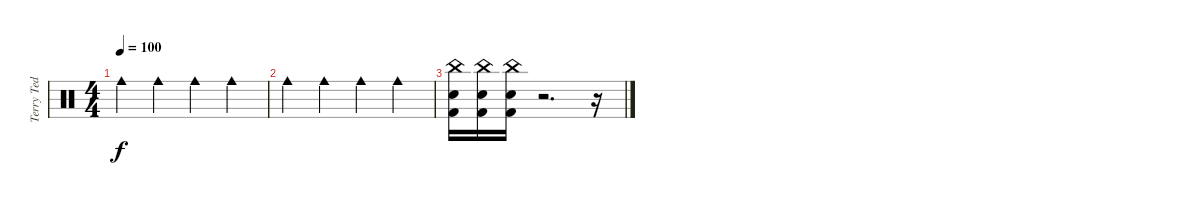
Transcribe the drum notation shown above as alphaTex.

\track ("Terry Ted" "Terry Ted") {instrument percussion}
\staff {score}
\articulation defaults
\ts (4 4)
\tempo 100
\clef neutral
\ks c "Cowbell medium (hit)".4{dy f beam merge} "Cowbell medium (hit)".4 "Cowbell medium (hit)".4 "Cowbell medium (hit)".4
|
"Cowbell medium (hit)".4 "Cowbell medium (hit)".4{beam merge} "Cowbell medium (hit)".4{beam merge} "Cowbell medium (hit)".4 |
("China (hit)" "Electric Snare (hit)" "Kick (hit) 2").16 ("China (hit)" "Electric Snare (hit)" "Kick (hit) 2").16{beam merge} ("China (hit)" "Electric Snare (hit)" "Kick (hit) 2").16{beam merge} r.2{d beam merge} r.16
